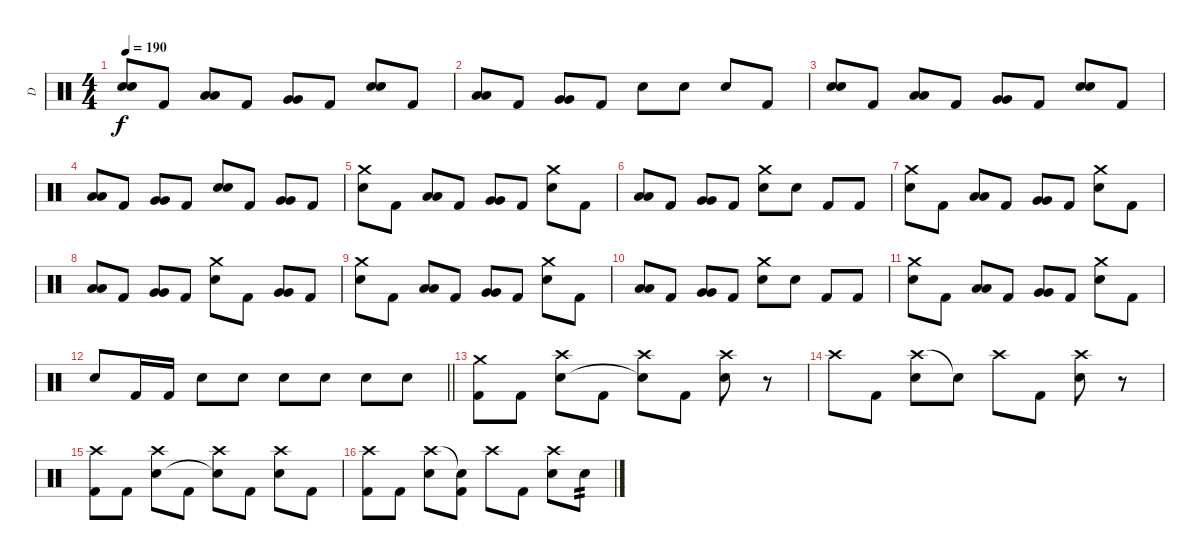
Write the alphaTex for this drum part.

\track ("D" "D") {instrument percussion}
\staff {score}
\articulation defaults
\ts (4 4)
\tempo 190
\clef neutral
\ks c
("Electric Snare (hit)" "Electric Snare (hit)").8{bd 120 dy f} "Kick (hit) 2".8 ("Low Tom (hit)" "Low Tom (hit)").8{bd 120} "Kick (hit) 2".8 ("Very Low Tom (hit)" "Very Low Tom (hit)").8{bd 120} "Kick (hit) 2".8 ("Electric Snare (hit)" "Electric Snare (hit)").8{bd 120} "Kick (hit) 2".8 |
("Low Tom (hit)" "Low Tom (hit)").8{bd 120} "Kick (hit) 2".8 ("Very Low Tom (hit)" "Very Low Tom (hit)").8{bd 120} "Kick (hit) 2".8 "Electric Snare (hit)".8 "Electric Snare (hit)".8 "Electric Snare (hit)".8 "Kick (hit) 2".8 |
("Electric Snare (hit)" "Electric Snare (hit)").8{bd 120} "Kick (hit) 2".8 ("Low Tom (hit)" "Low Tom (hit)").8{bd 120} "Kick (hit) 2".8 ("Very Low Tom (hit)" "Very Low Tom (hit)").8{bd 120} "Kick (hit) 2".8 ("Electric Snare (hit)" "Electric Snare (hit)").8{bd 120} "Kick (hit) 2".8 |
("Low Tom (hit)" "Low Tom (hit)").8{bd 120} "Kick (hit) 2".8 ("Very Low Tom (hit)" "Very Low Tom (hit)").8{bd 120} "Kick (hit) 2".8 ("Electric Snare (hit)" "Electric Snare (hit)").8{bd 120} "Kick (hit) 2".8 ("Very Low Tom (hit)" "Very Low Tom (hit)").8{bd 120} "Kick (hit) 2".8 |
("Crash medium (hit)" "Electric Snare (hit)").8 "Kick (hit) 2".8 ("Low Tom (hit)" "Low Tom (hit)").8{bd 120} "Kick (hit) 2".8 ("Very Low Tom (hit)" "Very Low Tom (hit)").8{bd 120} "Kick (hit) 2".8 ("Crash medium (hit)" "Electric Snare (hit)").8 "Kick (hit) 2".8 |
("Low Tom (hit)" "Low Tom (hit)").8{bd 120} "Kick (hit) 2".8 ("Very Low Tom (hit)" "Very Low Tom (hit)").8{bd 120} "Kick (hit) 2".8 ("Crash medium (hit)" "Electric Snare (hit)").8 "Electric Snare (hit)".8 "Kick (hit) 2".8 "Kick (hit) 2".8 |
("Crash medium (hit)" "Electric Snare (hit)").8 "Kick (hit) 2".8 ("Low Tom (hit)" "Low Tom (hit)").8{bd 120} "Kick (hit) 2".8 ("Very Low Tom (hit)" "Very Low Tom (hit)").8{bd 120} "Kick (hit) 2".8 ("Crash medium (hit)" "Electric Snare (hit)").8 "Kick (hit) 2".8 |
("Low Tom (hit)" "Low Tom (hit)").8{bd 120} "Kick (hit) 2".8 ("Very Low Tom (hit)" "Very Low Tom (hit)").8{bd 120} "Kick (hit) 2".8 ("Crash medium (hit)" "Electric Snare (hit)").8 "Kick (hit) 2".8 ("Very Low Tom (hit)" "Very Low Tom (hit)").8{bd 120} "Kick (hit) 2".8 |
("Crash medium (hit)" "Electric Snare (hit)").8 "Kick (hit) 2".8 ("Low Tom (hit)" "Low Tom (hit)").8{bd 120} "Kick (hit) 2".8 ("Very Low Tom (hit)" "Very Low Tom (hit)").8{bd 120} "Kick (hit) 2".8 ("Crash medium (hit)" "Electric Snare (hit)").8 "Kick (hit) 2".8 |
("Low Tom (hit)" "Low Tom (hit)").8{bd 120} "Kick (hit) 2".8 ("Very Low Tom (hit)" "Very Low Tom (hit)").8{bd 120} "Kick (hit) 2".8 ("Crash medium (hit)" "Electric Snare (hit)").8 "Electric Snare (hit)".8 "Kick (hit) 2".8 "Kick (hit) 2".8 |
("Crash medium (hit)" "Electric Snare (hit)").8 "Kick (hit) 2".8 ("Low Tom (hit)" "Low Tom (hit)").8{bd 120} "Kick (hit) 2".8 ("Very Low Tom (hit)" "Very Low Tom (hit)").8{bd 120} "Kick (hit) 2".8 ("Crash medium (hit)" "Electric Snare (hit)").8 "Kick (hit) 2".8 |
\barLineRight lightlight "Electric Snare (hit)".8 "Kick (hit) 2".16 "Kick (hit) 2".16 "Electric Snare (hit)".8 "Electric Snare (hit)".8 "Electric Snare (hit)".8 "Electric Snare (hit)".8 "Electric Snare (hit)".8 "Electric Snare (hit)".8
|
\section ("" "")
("Crash medium (hit)" "Kick (hit) 2").8 "Kick (hit) 2".8 ("Crash high (hit)" "Electric Snare (hit)").8 "Kick (hit) 2".8 ("Crash high (hit)" "Snare (hit)"{t}).8 "Kick (hit) 2".8 ("Crash high (hit)" "Electric Snare (hit)").8 r.8 |
"Crash high (hit)".8 "Kick (hit) 2".8 ("Crash high (hit)" "Electric Snare (hit)").8 "Snare (hit)"{t}.8 "Crash high (hit)".8 "Kick (hit) 2".8 ("Crash high (hit)" "Electric Snare (hit)").8 r.8 |
("Crash high (hit)" "Kick (hit) 2").8 "Kick (hit) 2".8 ("Crash high (hit)" "Electric Snare (hit)").8 "Kick (hit) 2".8 ("Crash high (hit)" "Snare (hit)"{t}).8 "Kick (hit) 2".8 ("Crash high (hit)" "Electric Snare (hit)").8 "Kick (hit) 2".8 |
("Crash high (hit)" "Kick (hit) 2").8 "Kick (hit) 2".8 ("Crash high (hit)" "Electric Snare (hit)").8 ("Snare (hit)"{t} "Kick (hit) 2").8 "Crash high (hit)".8 "Kick (hit) 2".8 ("Crash high (hit)" "Electric Snare (hit)").8 "Electric Snare (hit)".8{tp 2}
